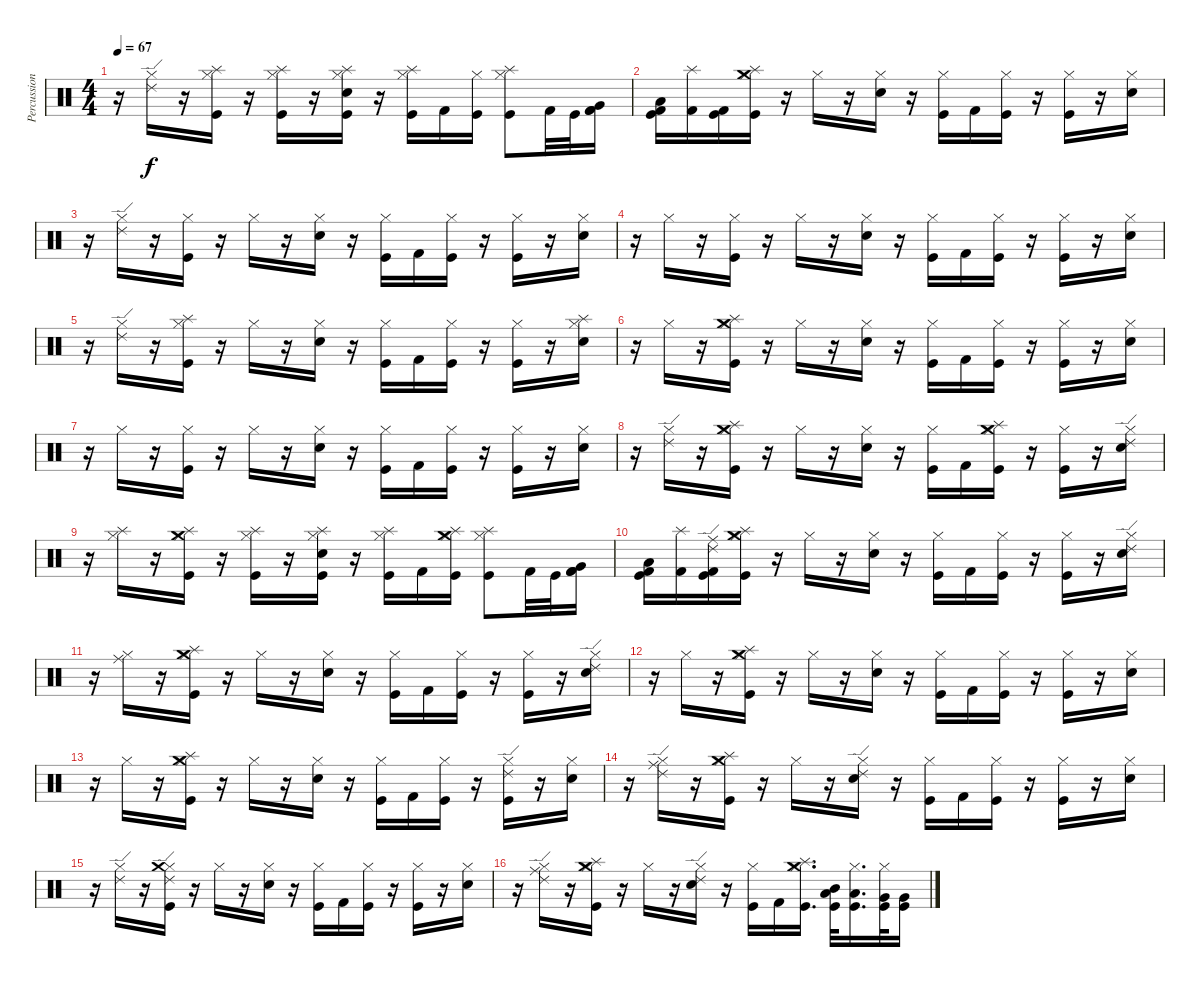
\track ("Percussion" "Percussion") {instrument percussion}
\staff {score}
\articulation defaults
\ts (4 4)
\tempo 67
\clef neutral
\ks c
r.16{dy f} ("Hi-Hat (closed)" "Ride (edge) 2").16 r.16 ("Hi-Hat (closed)" "Kick (hit)" "Splash (hit)").16 r.16 ("Hi-Hat (closed)" "Kick (hit)" "Splash (hit)").16 r.16 ("Hi-Hat (closed)" "Electric Snare (hit)" "Kick (hit)" "Splash (hit)").16 r.16 ("Hi-Hat (closed)" "Kick (hit)" "Splash (hit)").16 "Kick (hit) 2".16 ("Hi-Hat (closed)" "Kick (hit)").16 ("Hi-Hat (closed)" "Kick (hit)" "Splash (hit)").8 "Kick (hit) 2".32 "Kick (hit)".32 ("Kick (hit) 2" "Kick (hit) 2" "Very Low Tom (hit)").16 |
("Kick (hit)" "Kick (hit) 2" "Low Tom (hit)").16 ("Kick (hit) 2" "Splash (hit)").16 ("Kick (hit)" "Kick (hit) 2").16 ("Hi-Hat (closed)" "Kick (hit)" "Crash medium (hit)" "Splash (hit)").16 r.16 "Hi-Hat (closed)".16 r.16 ("Hi-Hat (closed)" "Electric Snare (hit)").16 r.16 ("Hi-Hat (closed)" "Kick (hit)").16 "Kick (hit) 2".16 ("Hi-Hat (closed)" "Kick (hit)").16 r.16 ("Hi-Hat (closed)" "Kick (hit)").16 r.16 ("Hi-Hat (closed)" "Electric Snare (hit)").16 |
r.16 ("Hi-Hat (closed)" "Ride (edge) 2").16 r.16 ("Hi-Hat (closed)" "Kick (hit)").16 r.16 "Hi-Hat (closed)".16 r.16 ("Hi-Hat (closed)" "Electric Snare (hit)").16 r.16 ("Hi-Hat (closed)" "Kick (hit)").16 "Kick (hit) 2".16 ("Hi-Hat (closed)" "Kick (hit)").16 r.16 ("Hi-Hat (closed)" "Kick (hit)").16 r.16 ("Hi-Hat (closed)" "Electric Snare (hit)").16 |
r.16 "Hi-Hat (closed)".16 r.16 ("Hi-Hat (closed)" "Kick (hit)").16 r.16 "Hi-Hat (closed)".16 r.16 ("Hi-Hat (closed)" "Electric Snare (hit)").16 r.16 ("Hi-Hat (closed)" "Kick (hit)").16 "Kick (hit) 2".16 ("Hi-Hat (closed)" "Kick (hit)").16 r.16 ("Hi-Hat (closed)" "Kick (hit)").16 r.16 ("Hi-Hat (closed)" "Electric Snare (hit)").16 |
r.16 ("Hi-Hat (closed)" "Ride (edge) 2").16 r.16 ("Hi-Hat (closed)" "Kick (hit)" "Splash (hit)").16 r.16 "Hi-Hat (closed)".16 r.16 ("Hi-Hat (closed)" "Electric Snare (hit)").16 r.16 ("Hi-Hat (closed)" "Kick (hit)").16 "Kick (hit) 2".16 ("Hi-Hat (closed)" "Kick (hit)").16 r.16 ("Hi-Hat (closed)" "Kick (hit)").16 r.16 ("Hi-Hat (closed)" "Electric Snare (hit)" "Splash (hit)").16 |
r.16 "Hi-Hat (closed)".16 r.16 ("Hi-Hat (closed)" "Kick (hit)" "Crash medium (hit)" "Splash (hit)").16 r.16 "Hi-Hat (closed)".16 r.16 ("Hi-Hat (closed)" "Electric Snare (hit)").16 r.16 ("Hi-Hat (closed)" "Kick (hit)").16 "Kick (hit) 2".16 ("Hi-Hat (closed)" "Kick (hit)").16 r.16 ("Hi-Hat (closed)" "Kick (hit)").16 r.16 ("Hi-Hat (closed)" "Electric Snare (hit)").16 |
r.16 "Hi-Hat (closed)".16 r.16 ("Hi-Hat (closed)" "Kick (hit)").16 r.16 "Hi-Hat (closed)".16 r.16 ("Hi-Hat (closed)" "Electric Snare (hit)").16 r.16 ("Hi-Hat (closed)" "Kick (hit)").16 "Kick (hit) 2".16 ("Hi-Hat (closed)" "Kick (hit)").16 r.16 ("Hi-Hat (closed)" "Kick (hit)").16 r.16 ("Hi-Hat (closed)" "Electric Snare (hit)").16 |
r.16 ("Hi-Hat (closed)" "Ride (edge) 2").16 r.16 ("Hi-Hat (closed)" "Kick (hit)" "Crash medium (hit)" "Splash (hit)").16 r.16 "Hi-Hat (closed)".16 r.16 ("Hi-Hat (closed)" "Electric Snare (hit)").16 r.16 ("Hi-Hat (closed)" "Kick (hit)").16 "Kick (hit) 2".16 ("Hi-Hat (closed)" "Kick (hit)" "Crash medium (hit)" "Splash (hit)").16 r.16 ("Hi-Hat (closed)" "Kick (hit)").16 r.16 ("Hi-Hat (closed)" "Electric Snare (hit)" "Ride (edge) 2").16 |
r.16 ("Hi-Hat (closed)" "Splash (hit)").16 r.16 ("Hi-Hat (closed)" "Kick (hit)" "Splash (hit)" "Crash medium (hit)").16 r.16 ("Hi-Hat (closed)" "Kick (hit)" "Splash (hit)").16 r.16 ("Hi-Hat (closed)" "Electric Snare (hit)" "Kick (hit)" "Splash (hit)").16 r.16 ("Hi-Hat (closed)" "Kick (hit)" "Splash (hit)").16 "Kick (hit) 2".16 ("Hi-Hat (closed)" "Kick (hit)" "Crash medium (hit)" "Splash (hit)").16 ("Hi-Hat (closed)" "Kick (hit)" "Splash (hit)").8 "Kick (hit) 2".32 "Kick (hit)".32 ("Kick (hit) 2" "Kick (hit) 2" "Very Low Tom (hit)").16 |
("Kick (hit)" "Kick (hit) 2" "Low Tom (hit)").16 ("Kick (hit) 2" "Splash (hit)").16 ("Kick (hit)" "Kick (hit) 2" "Ride (edge) 2" "Ride (middle)").16 ("Hi-Hat (closed)" "Kick (hit)" "Crash medium (hit)" "Splash (hit)").16 r.16 "Hi-Hat (closed)".16 r.16 ("Hi-Hat (closed)" "Electric Snare (hit)").16 r.16 ("Hi-Hat (closed)" "Kick (hit)").16 "Kick (hit) 2".16 ("Hi-Hat (closed)" "Kick (hit)").16 r.16 ("Hi-Hat (closed)" "Kick (hit)").16 r.16 ("Hi-Hat (closed)" "Electric Snare (hit)" "Ride (edge) 2").16 |
r.16 ("Hi-Hat (closed)" "Ride (middle)").16 r.16 ("Hi-Hat (closed)" "Kick (hit)" "Crash medium (hit)" "Splash (hit)").16 r.16 "Hi-Hat (closed)".16 r.16 ("Hi-Hat (closed)" "Electric Snare (hit)").16 r.16 ("Hi-Hat (closed)" "Kick (hit)").16 "Kick (hit) 2".16 ("Hi-Hat (closed)" "Kick (hit)").16 r.16 ("Hi-Hat (closed)" "Kick (hit)").16 r.16 ("Hi-Hat (closed)" "Electric Snare (hit)" "Ride (edge) 2").16 |
r.16 "Hi-Hat (closed)".16 r.16 ("Hi-Hat (closed)" "Kick (hit)" "Crash medium (hit)" "Splash (hit)").16 r.16 "Hi-Hat (closed)".16 r.16 ("Hi-Hat (closed)" "Electric Snare (hit)").16 r.16 ("Hi-Hat (closed)" "Kick (hit)").16 "Kick (hit) 2".16 ("Hi-Hat (closed)" "Kick (hit)").16 r.16 ("Hi-Hat (closed)" "Kick (hit)").16 r.16 ("Hi-Hat (closed)" "Electric Snare (hit)").16 |
r.16 "Hi-Hat (closed)".16 r.16 ("Hi-Hat (closed)" "Kick (hit)" "Crash medium (hit)" "Splash (hit)").16 r.16 "Hi-Hat (closed)".16 r.16 ("Hi-Hat (closed)" "Electric Snare (hit)").16 r.16 ("Hi-Hat (closed)" "Kick (hit)").16 "Kick (hit) 2".16 ("Hi-Hat (closed)" "Kick (hit)").16 r.16 ("Hi-Hat (closed)" "Kick (hit)" "Ride (edge) 2").16 r.16 ("Hi-Hat (closed)" "Electric Snare (hit)").16 |
r.16 ("Hi-Hat (closed)" "Ride (edge) 2" "Ride (middle)").16 r.16 ("Hi-Hat (closed)" "Kick (hit)" "Crash medium (hit)" "Splash (hit)").16 r.16 "Hi-Hat (closed)".16 r.16 ("Hi-Hat (closed)" "Electric Snare (hit)" "Ride (edge) 2").16 r.16 ("Hi-Hat (closed)" "Kick (hit)").16 "Kick (hit) 2".16 ("Hi-Hat (closed)" "Kick (hit)").16 r.16 ("Hi-Hat (closed)" "Kick (hit)").16 r.16 ("Hi-Hat (closed)" "Electric Snare (hit)").16 |
r.16 ("Hi-Hat (closed)" "Ride (edge) 2").16 r.16 ("Hi-Hat (closed)" "Kick (hit)" "Ride (edge) 2" "Crash medium (hit)").16 r.16 "Hi-Hat (closed)".16 r.16 ("Hi-Hat (closed)" "Electric Snare (hit)").16 r.16 ("Hi-Hat (closed)" "Kick (hit)").16 "Kick (hit) 2".16 ("Hi-Hat (closed)" "Kick (hit)").16 r.16 ("Hi-Hat (closed)" "Kick (hit)").16 r.16 ("Hi-Hat (closed)" "Electric Snare (hit)").16 |
r.16 ("Hi-Hat (closed)" "Ride (edge) 2" "Ride (middle)").16 r.16 ("Hi-Hat (closed)" "Kick (hit)" "Crash medium (hit)" "Splash (hit)").16 r.16 "Hi-Hat (closed)".16 r.16 ("Hi-Hat (closed)" "Electric Snare (hit)" "Ride (edge) 2").16 r.16 ("Hi-Hat (closed)" "Kick (hit)").16 "Kick (hit) 2".16 ("Kick (hit)" "Hi-Hat (closed)" "Crash medium (hit)" "Splash (hit)").16{d} ("Kick (hit)" "Mid Tom (hit)" "Low Tom (hit)").32 ("Kick (hit)" "Hi-Hat (closed)" "Low Tom (hit)").16{d} ("Kick (hit)" "Hi-Hat (closed)" "Very Low Tom (hit)").32 ("Kick (hit)" "Very Low Tom (hit)").16
